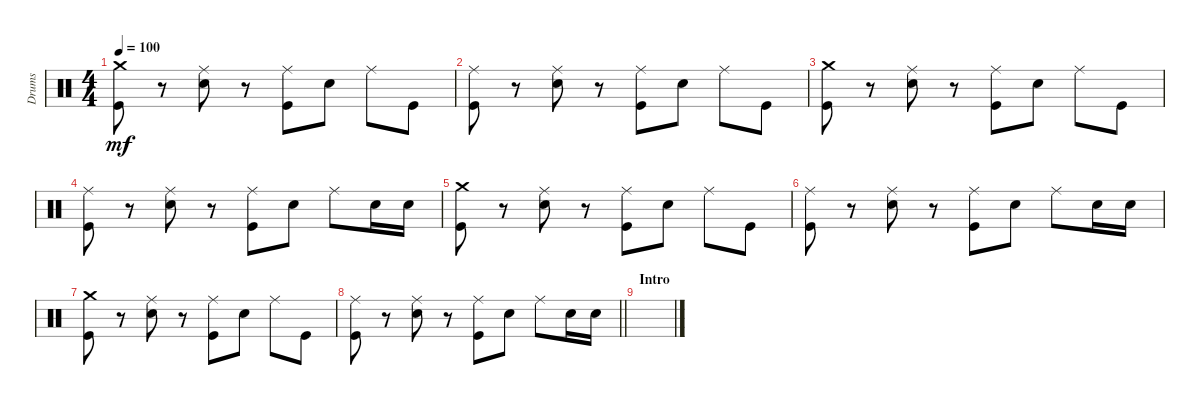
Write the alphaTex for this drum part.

\track ("Drums" "Drums") {instrument percussion}
\staff {score}
\articulation defaults
\ts (4 4)
\tempo 100
\clef neutral
\ks c
("Crash medium (hit)" "Kick (hit)").8{dy mf} r.8 ("Ride (middle)" "Snare (hit) 2").8 r.8 ("Ride (middle)" "Kick (hit)").8 "Snare (hit) 2".8 "Ride (middle)".8 "Kick (hit)".8 |
("Ride (middle)" "Kick (hit)").8 r.8 ("Ride (middle)" "Snare (hit) 2").8 r.8 ("Ride (middle)" "Kick (hit)").8 "Snare (hit) 2".8 "Ride (middle)".8 "Kick (hit)".8 |
("Crash medium (hit)" "Kick (hit)").8 r.8 ("Ride (middle)" "Snare (hit) 2").8 r.8 ("Ride (middle)" "Kick (hit)").8 "Snare (hit) 2".8 "Ride (middle)".8 "Kick (hit)".8 |
("Ride (middle)" "Kick (hit)").8 r.8 ("Ride (middle)" "Snare (hit) 2").8 r.8 ("Ride (middle)" "Kick (hit)").8 "Snare (hit) 2".8 "Ride (middle)".8 "Snare (hit) 2".16 "Snare (hit) 2".16 |
("Crash medium (hit)" "Kick (hit)").8 r.8 ("Ride (middle)" "Snare (hit) 2").8 r.8 ("Ride (middle)" "Kick (hit)").8 "Snare (hit) 2".8 "Ride (middle)".8 "Kick (hit)".8 |
("Ride (middle)" "Kick (hit)").8 r.8 ("Ride (middle)" "Snare (hit) 2").8 r.8 ("Ride (middle)" "Kick (hit)").8 "Snare (hit) 2".8 "Ride (middle)".8 "Snare (hit) 2".16 "Snare (hit) 2".16 |
("Crash medium (hit)" "Kick (hit)").8 r.8 ("Ride (middle)" "Snare (hit) 2").8 r.8 ("Ride (middle)" "Kick (hit)").8 "Snare (hit) 2".8 "Ride (middle)".8 "Kick (hit)".8 |
\barLineRight lightlight
("Ride (middle)" "Kick (hit)").8 r.8 ("Ride (middle)" "Snare (hit) 2").8 r.8 ("Ride (middle)" "Kick (hit)").8 "Snare (hit) 2".8 "Ride (middle)".8 "Snare (hit) 2".16 "Snare (hit) 2".16 |
\section ("" "Intro")
